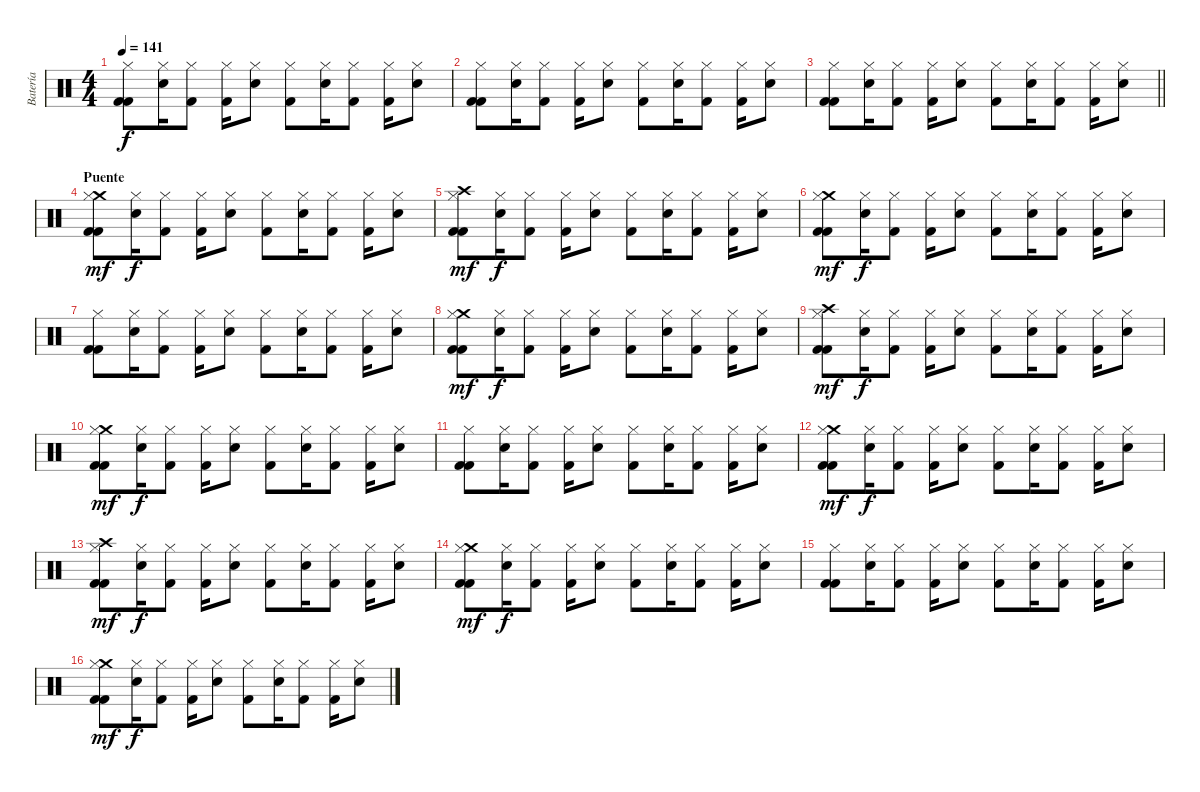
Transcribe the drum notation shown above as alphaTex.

\track ("Batería" "Batería") {instrument percussion}
\staff {score}
\articulation defaults
\ts (4 4)
\tempo 141
\clef neutral
\ks c
("Hi-Hat (closed)" "Kick (hit) 2" "Kick (hit) 2").8{dy f} ("Hi-Hat (closed)" "Electric Snare (hit)").16 ("Hi-Hat (closed)" "Kick (hit) 2").8 ("Hi-Hat (closed)" "Kick (hit) 2").16 ("Hi-Hat (closed)" "Electric Snare (hit)").8 ("Hi-Hat (closed)" "Kick (hit) 2").8 ("Hi-Hat (closed)" "Electric Snare (hit)").16 ("Hi-Hat (closed)" "Kick (hit) 2").8 ("Hi-Hat (closed)" "Kick (hit) 2").16 ("Hi-Hat (closed)" "Electric Snare (hit)").8 |
("Hi-Hat (closed)" "Kick (hit) 2" "Kick (hit) 2").8 ("Hi-Hat (closed)" "Electric Snare (hit)").16 ("Hi-Hat (closed)" "Kick (hit) 2").8 ("Hi-Hat (closed)" "Kick (hit) 2").16 ("Hi-Hat (closed)" "Electric Snare (hit)").8 ("Hi-Hat (closed)" "Kick (hit) 2").8 ("Hi-Hat (closed)" "Electric Snare (hit)").16 ("Hi-Hat (closed)" "Kick (hit) 2").8 ("Hi-Hat (closed)" "Kick (hit) 2").16 ("Hi-Hat (closed)" "Electric Snare (hit)").8 |
\barLineRight lightlight
("Hi-Hat (closed)" "Kick (hit) 2" "Kick (hit) 2").8 ("Hi-Hat (closed)" "Electric Snare (hit)").16 ("Hi-Hat (closed)" "Kick (hit) 2").8 ("Hi-Hat (closed)" "Kick (hit) 2").16 ("Hi-Hat (closed)" "Electric Snare (hit)").8 ("Hi-Hat (closed)" "Kick (hit) 2").8 ("Hi-Hat (closed)" "Electric Snare (hit)").16 ("Hi-Hat (closed)" "Kick (hit) 2").8 ("Hi-Hat (closed)" "Kick (hit) 2").16 ("Hi-Hat (closed)" "Electric Snare (hit)").8 |
\section ("" "Puente")
("Crash medium (hit)" "Hi-Hat (closed)" "Kick (hit) 2" "Kick (hit) 2").8{dy mf} ("Hi-Hat (closed)" "Electric Snare (hit)").16{dy f} ("Hi-Hat (closed)" "Kick (hit) 2").8 ("Hi-Hat (closed)" "Kick (hit) 2").16 ("Hi-Hat (closed)" "Electric Snare (hit)").8 ("Hi-Hat (closed)" "Kick (hit) 2").8 ("Hi-Hat (closed)" "Electric Snare (hit)").16 ("Hi-Hat (closed)" "Kick (hit) 2").8 ("Hi-Hat (closed)" "Kick (hit) 2").16 ("Hi-Hat (closed)" "Electric Snare (hit)").8 |
("Crash high (hit)" "Hi-Hat (closed)" "Kick (hit) 2" "Kick (hit) 2").8{dy mf} ("Hi-Hat (closed)" "Electric Snare (hit)").16{dy f} ("Hi-Hat (closed)" "Kick (hit) 2").8 ("Hi-Hat (closed)" "Kick (hit) 2").16 ("Hi-Hat (closed)" "Electric Snare (hit)").8 ("Hi-Hat (closed)" "Kick (hit) 2").8 ("Hi-Hat (closed)" "Electric Snare (hit)").16 ("Hi-Hat (closed)" "Kick (hit) 2").8 ("Hi-Hat (closed)" "Kick (hit) 2").16 ("Hi-Hat (closed)" "Electric Snare (hit)").8 |
("Crash medium (hit)" "Hi-Hat (closed)" "Kick (hit) 2" "Kick (hit) 2").8{dy mf} ("Hi-Hat (closed)" "Electric Snare (hit)").16{dy f} ("Hi-Hat (closed)" "Kick (hit) 2").8 ("Hi-Hat (closed)" "Kick (hit) 2").16 ("Hi-Hat (closed)" "Electric Snare (hit)").8 ("Hi-Hat (closed)" "Kick (hit) 2").8 ("Hi-Hat (closed)" "Electric Snare (hit)").16 ("Hi-Hat (closed)" "Kick (hit) 2").8 ("Hi-Hat (closed)" "Kick (hit) 2").16 ("Hi-Hat (closed)" "Electric Snare (hit)").8 |
("Hi-Hat (closed)" "Kick (hit) 2" "Kick (hit) 2").8 ("Hi-Hat (closed)" "Electric Snare (hit)").16 ("Hi-Hat (closed)" "Kick (hit) 2").8 ("Hi-Hat (closed)" "Kick (hit) 2").16 ("Hi-Hat (closed)" "Electric Snare (hit)").8 ("Hi-Hat (closed)" "Kick (hit) 2").8 ("Hi-Hat (closed)" "Electric Snare (hit)").16 ("Hi-Hat (closed)" "Kick (hit) 2").8 ("Hi-Hat (closed)" "Kick (hit) 2").16 ("Hi-Hat (closed)" "Electric Snare (hit)").8 |
("Crash medium (hit)" "Hi-Hat (closed)" "Kick (hit) 2" "Kick (hit) 2").8{dy mf} ("Hi-Hat (closed)" "Electric Snare (hit)").16{dy f} ("Hi-Hat (closed)" "Kick (hit) 2").8 ("Hi-Hat (closed)" "Kick (hit) 2").16 ("Hi-Hat (closed)" "Electric Snare (hit)").8 ("Hi-Hat (closed)" "Kick (hit) 2").8 ("Hi-Hat (closed)" "Electric Snare (hit)").16 ("Hi-Hat (closed)" "Kick (hit) 2").8 ("Hi-Hat (closed)" "Kick (hit) 2").16 ("Hi-Hat (closed)" "Electric Snare (hit)").8 |
("Crash high (hit)" "Hi-Hat (closed)" "Kick (hit) 2" "Kick (hit) 2").8{dy mf} ("Hi-Hat (closed)" "Electric Snare (hit)").16{dy f} ("Hi-Hat (closed)" "Kick (hit) 2").8 ("Hi-Hat (closed)" "Kick (hit) 2").16 ("Hi-Hat (closed)" "Electric Snare (hit)").8 ("Hi-Hat (closed)" "Kick (hit) 2").8 ("Hi-Hat (closed)" "Electric Snare (hit)").16 ("Hi-Hat (closed)" "Kick (hit) 2").8 ("Hi-Hat (closed)" "Kick (hit) 2").16 ("Hi-Hat (closed)" "Electric Snare (hit)").8 |
("Crash medium (hit)" "Hi-Hat (closed)" "Kick (hit) 2" "Kick (hit) 2").8{dy mf} ("Hi-Hat (closed)" "Electric Snare (hit)").16{dy f} ("Hi-Hat (closed)" "Kick (hit) 2").8 ("Hi-Hat (closed)" "Kick (hit) 2").16 ("Hi-Hat (closed)" "Electric Snare (hit)").8 ("Hi-Hat (closed)" "Kick (hit) 2").8 ("Hi-Hat (closed)" "Electric Snare (hit)").16 ("Hi-Hat (closed)" "Kick (hit) 2").8 ("Hi-Hat (closed)" "Kick (hit) 2").16 ("Hi-Hat (closed)" "Electric Snare (hit)").8 |
("Hi-Hat (closed)" "Kick (hit) 2" "Kick (hit) 2").8 ("Hi-Hat (closed)" "Electric Snare (hit)").16 ("Hi-Hat (closed)" "Kick (hit) 2").8 ("Hi-Hat (closed)" "Kick (hit) 2").16 ("Hi-Hat (closed)" "Electric Snare (hit)").8 ("Hi-Hat (closed)" "Kick (hit) 2").8 ("Hi-Hat (closed)" "Electric Snare (hit)").16 ("Hi-Hat (closed)" "Kick (hit) 2").8 ("Hi-Hat (closed)" "Kick (hit) 2").16 ("Hi-Hat (closed)" "Electric Snare (hit)").8 |
("Crash medium (hit)" "Hi-Hat (closed)" "Kick (hit) 2" "Kick (hit) 2").8{dy mf} ("Hi-Hat (closed)" "Electric Snare (hit)").16{dy f} ("Hi-Hat (closed)" "Kick (hit) 2").8 ("Hi-Hat (closed)" "Kick (hit) 2").16 ("Hi-Hat (closed)" "Electric Snare (hit)").8 ("Hi-Hat (closed)" "Kick (hit) 2").8 ("Hi-Hat (closed)" "Electric Snare (hit)").16 ("Hi-Hat (closed)" "Kick (hit) 2").8 ("Hi-Hat (closed)" "Kick (hit) 2").16 ("Hi-Hat (closed)" "Electric Snare (hit)").8 |
("Crash high (hit)" "Hi-Hat (closed)" "Kick (hit) 2" "Kick (hit) 2").8{dy mf} ("Hi-Hat (closed)" "Electric Snare (hit)").16{dy f} ("Hi-Hat (closed)" "Kick (hit) 2").8 ("Hi-Hat (closed)" "Kick (hit) 2").16 ("Hi-Hat (closed)" "Electric Snare (hit)").8 ("Hi-Hat (closed)" "Kick (hit) 2").8 ("Hi-Hat (closed)" "Electric Snare (hit)").16 ("Hi-Hat (closed)" "Kick (hit) 2").8 ("Hi-Hat (closed)" "Kick (hit) 2").16 ("Hi-Hat (closed)" "Electric Snare (hit)").8 |
("Crash medium (hit)" "Hi-Hat (closed)" "Kick (hit) 2" "Kick (hit) 2").8{dy mf} ("Hi-Hat (closed)" "Electric Snare (hit)").16{dy f} ("Hi-Hat (closed)" "Kick (hit) 2").8 ("Hi-Hat (closed)" "Kick (hit) 2").16 ("Hi-Hat (closed)" "Electric Snare (hit)").8 ("Hi-Hat (closed)" "Kick (hit) 2").8 ("Hi-Hat (closed)" "Electric Snare (hit)").16 ("Hi-Hat (closed)" "Kick (hit) 2").8 ("Hi-Hat (closed)" "Kick (hit) 2").16 ("Hi-Hat (closed)" "Electric Snare (hit)").8 |
("Hi-Hat (closed)" "Kick (hit) 2" "Kick (hit) 2").8 ("Hi-Hat (closed)" "Electric Snare (hit)").16 ("Hi-Hat (closed)" "Kick (hit) 2").8 ("Hi-Hat (closed)" "Kick (hit) 2").16 ("Hi-Hat (closed)" "Electric Snare (hit)").8 ("Hi-Hat (closed)" "Kick (hit) 2").8 ("Hi-Hat (closed)" "Electric Snare (hit)").16 ("Hi-Hat (closed)" "Kick (hit) 2").8 ("Hi-Hat (closed)" "Kick (hit) 2").16 ("Hi-Hat (closed)" "Electric Snare (hit)").8 |
("Crash medium (hit)" "Hi-Hat (closed)" "Kick (hit) 2" "Kick (hit) 2").8{dy mf} ("Hi-Hat (closed)" "Electric Snare (hit)").16{dy f} ("Hi-Hat (closed)" "Kick (hit) 2").8 ("Hi-Hat (closed)" "Kick (hit) 2").16 ("Hi-Hat (closed)" "Electric Snare (hit)").8 ("Hi-Hat (closed)" "Kick (hit) 2").8 ("Hi-Hat (closed)" "Electric Snare (hit)").16 ("Hi-Hat (closed)" "Kick (hit) 2").8 ("Hi-Hat (closed)" "Kick (hit) 2").16 ("Hi-Hat (closed)" "Electric Snare (hit)").8
